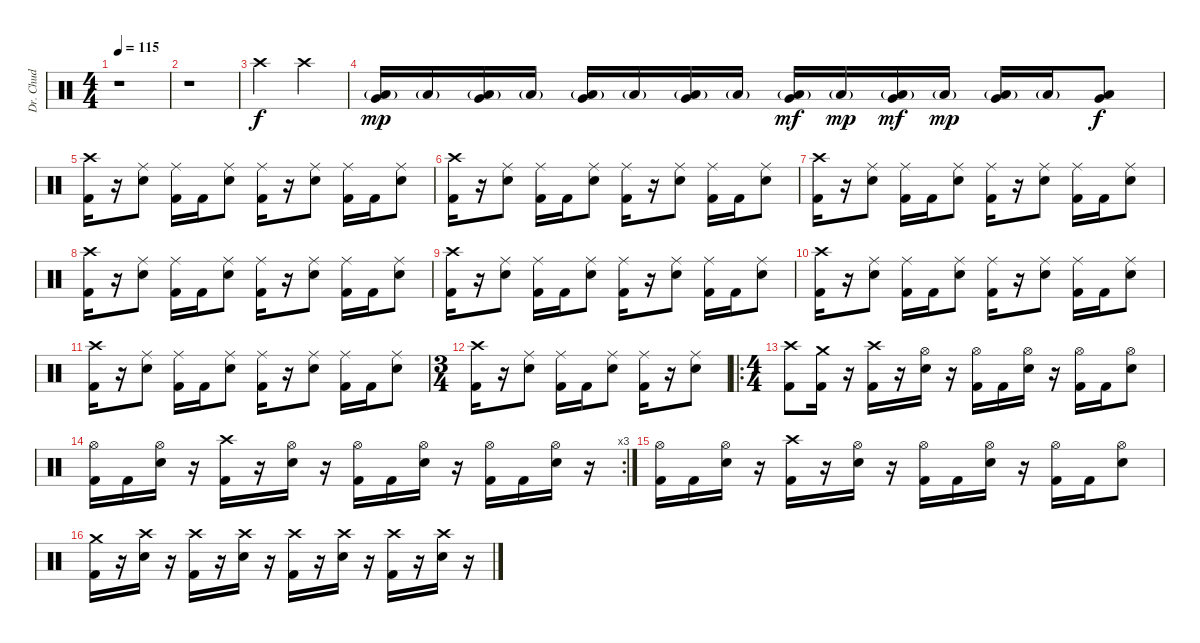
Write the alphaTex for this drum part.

\track ("Dr. Chud" "Dr. Chud") {instrument percussion}
\staff {score}
\articulation defaults
\ts (4 4)
\tempo 115
\clef neutral
\ks c
r.1{dy f} |
r.1 |
"Crash high (hit)".2 "Crash high (hit)".2 |
("Low Floor Tom (hit)"{g} "Very Low Tom (hit)").16{dy mp} "Low Floor Tom (hit)"{g}.16 ("Low Floor Tom (hit)"{g} "Very Low Tom (hit)").16 "Low Floor Tom (hit)"{g}.16 ("Low Floor Tom (hit)"{g} "Very Low Tom (hit)").16 "Low Floor Tom (hit)"{g}.16 ("Low Floor Tom (hit)"{g} "Very Low Tom (hit)").16 "Low Floor Tom (hit)"{g}.16 ("Low Floor Tom (hit)"{g} "Very Low Tom (hit)").16{dy mf} "Low Floor Tom (hit)"{g}.16{dy mp} ("Low Floor Tom (hit)"{g} "Very Low Tom (hit)").16{dy mf} "Low Floor Tom (hit)"{g}.16{dy mp} ("Low Floor Tom (hit)"{g} "Very Low Tom (hit)").16 "Low Floor Tom (hit)"{g}.16 ("Low Floor Tom (hit)" "Very Low Tom (hit)").8{dy f} |
("Crash high (hit)" "Kick (hit) 2").16 r.16 ("Ride (middle)" "Snare (hit) 2").8 ("Ride (middle)" "Kick (hit) 2").16 "Kick (hit) 2".16 ("Ride (middle)" "Snare (hit) 2").8 ("Ride (middle)" "Kick (hit) 2").16 r.16 ("Ride (middle)" "Snare (hit) 2").8 ("Ride (middle)" "Kick (hit) 2").16 "Kick (hit) 2".16 ("Ride (middle)" "Snare (hit) 2").8 |
("Crash high (hit)" "Kick (hit) 2").16 r.16 ("Ride (middle)" "Snare (hit) 2").8 ("Ride (middle)" "Kick (hit) 2").16 "Kick (hit) 2".16 ("Ride (middle)" "Snare (hit) 2").8 ("Ride (middle)" "Kick (hit) 2").16 r.16 ("Ride (middle)" "Snare (hit) 2").8 ("Ride (middle)" "Kick (hit) 2").16 "Kick (hit) 2".16 ("Ride (middle)" "Snare (hit) 2").8 |
("Crash high (hit)" "Kick (hit) 2").16 r.16 ("Ride (middle)" "Snare (hit) 2").8 ("Ride (middle)" "Kick (hit) 2").16 "Kick (hit) 2".16 ("Ride (middle)" "Snare (hit) 2").8 ("Ride (middle)" "Kick (hit) 2").16 r.16 ("Ride (middle)" "Snare (hit) 2").8 ("Ride (middle)" "Kick (hit) 2").16 "Kick (hit) 2".16 ("Ride (middle)" "Snare (hit) 2").8 |
("Crash high (hit)" "Kick (hit) 2").16 r.16 ("Ride (middle)" "Snare (hit) 2").8 ("Ride (middle)" "Kick (hit) 2").16 "Kick (hit) 2".16 ("Ride (middle)" "Snare (hit) 2").8 ("Ride (middle)" "Kick (hit) 2").16 r.16 ("Ride (middle)" "Snare (hit) 2").8 ("Ride (middle)" "Kick (hit) 2").16 "Kick (hit) 2".16 ("Ride (middle)" "Snare (hit) 2").8 |
("Crash high (hit)" "Kick (hit) 2").16 r.16 ("Ride (middle)" "Snare (hit) 2").8 ("Ride (middle)" "Kick (hit) 2").16 "Kick (hit) 2".16 ("Ride (middle)" "Snare (hit) 2").8 ("Ride (middle)" "Kick (hit) 2").16 r.16 ("Ride (middle)" "Snare (hit) 2").8 ("Ride (middle)" "Kick (hit) 2").16 "Kick (hit) 2".16 ("Ride (middle)" "Snare (hit) 2").8 |
("Crash high (hit)" "Kick (hit) 2").16 r.16 ("Ride (middle)" "Snare (hit) 2").8 ("Ride (middle)" "Kick (hit) 2").16 "Kick (hit) 2".16 ("Ride (middle)" "Snare (hit) 2").8 ("Ride (middle)" "Kick (hit) 2").16 r.16 ("Ride (middle)" "Snare (hit) 2").8 ("Ride (middle)" "Kick (hit) 2").16 "Kick (hit) 2".16 ("Ride (middle)" "Snare (hit) 2").8 |
("Crash high (hit)" "Kick (hit) 2").16 r.16 ("Ride (middle)" "Snare (hit) 2").8 ("Ride (middle)" "Kick (hit) 2").16 "Kick (hit) 2".16 ("Ride (middle)" "Snare (hit) 2").8 ("Ride (middle)" "Kick (hit) 2").16 r.16 ("Ride (middle)" "Snare (hit) 2").8 ("Ride (middle)" "Kick (hit) 2").16 "Kick (hit) 2".16 ("Ride (middle)" "Snare (hit) 2").8 |
\ts (3 4)
("Crash high (hit)" "Kick (hit) 2").16 r.16 ("Ride (middle)" "Snare (hit) 2").8 ("Ride (middle)" "Kick (hit) 2").16 "Kick (hit) 2".16 ("Ride (middle)" "Snare (hit) 2").8 ("Ride (middle)" "Kick (hit) 2").16 r.16 ("Ride (middle)" "Snare (hit) 2").8 |
\ro
\ts (4 4)
("Crash high (hit)" "Kick (hit) 2").8 ("Crash medium (hit)" "Kick (hit) 2").16 r.16 ("Crash high (hit)" "Kick (hit) 2").16 r.16 ("Hi-Hat (open)" "Snare (hit) 2").16 r.16 ("Hi-Hat (open)" "Kick (hit) 2").16 "Kick (hit) 2".16 ("Hi-Hat (open)" "Snare (hit) 2").16 r.16 ("Hi-Hat (open)" "Kick (hit) 2").16 "Kick (hit) 2".16 ("Hi-Hat (open)" "Snare (hit) 2").8 |
\rc 3
("Hi-Hat (open)" "Kick (hit) 2").16 "Kick (hit) 2".16 ("Hi-Hat (open)" "Snare (hit) 2").16 r.16 ("Crash high (hit)" "Kick (hit) 2").16 r.16 ("Hi-Hat (open)" "Snare (hit) 2").16 r.16 ("Hi-Hat (open)" "Kick (hit) 2").16 "Kick (hit) 2".16 ("Hi-Hat (open)" "Snare (hit) 2").16 r.16 ("Hi-Hat (open)" "Kick (hit) 2").16 "Kick (hit) 2".16 ("Hi-Hat (open)" "Snare (hit) 2").16 r.16 |
("Hi-Hat (open)" "Kick (hit) 2").16 "Kick (hit) 2".16 ("Hi-Hat (open)" "Snare (hit) 2").16 r.16 ("Crash high (hit)" "Kick (hit) 2").16 r.16 ("Hi-Hat (open)" "Snare (hit) 2").16 r.16 ("Hi-Hat (open)" "Kick (hit) 2").16 "Kick (hit) 2".16 ("Hi-Hat (open)" "Snare (hit) 2").16 r.16 ("Hi-Hat (open)" "Kick (hit) 2").16 "Kick (hit) 2".16 ("Hi-Hat (open)" "Snare (hit) 2").8 |
("Crash medium (hit)" "Kick (hit) 2").16 r.16 ("Crash high (hit)" "Snare (hit) 2").16 r.16 ("Crash high (hit)" "Kick (hit) 2").16 r.16 ("Crash high (hit)" "Snare (hit) 2").16 r.16 ("Crash high (hit)" "Kick (hit) 2").16 r.16 ("Crash high (hit)" "Snare (hit) 2").16 r.16 ("Crash high (hit)" "Kick (hit) 2").16 r.16 ("Crash high (hit)" "Snare (hit) 2").16 r.16
